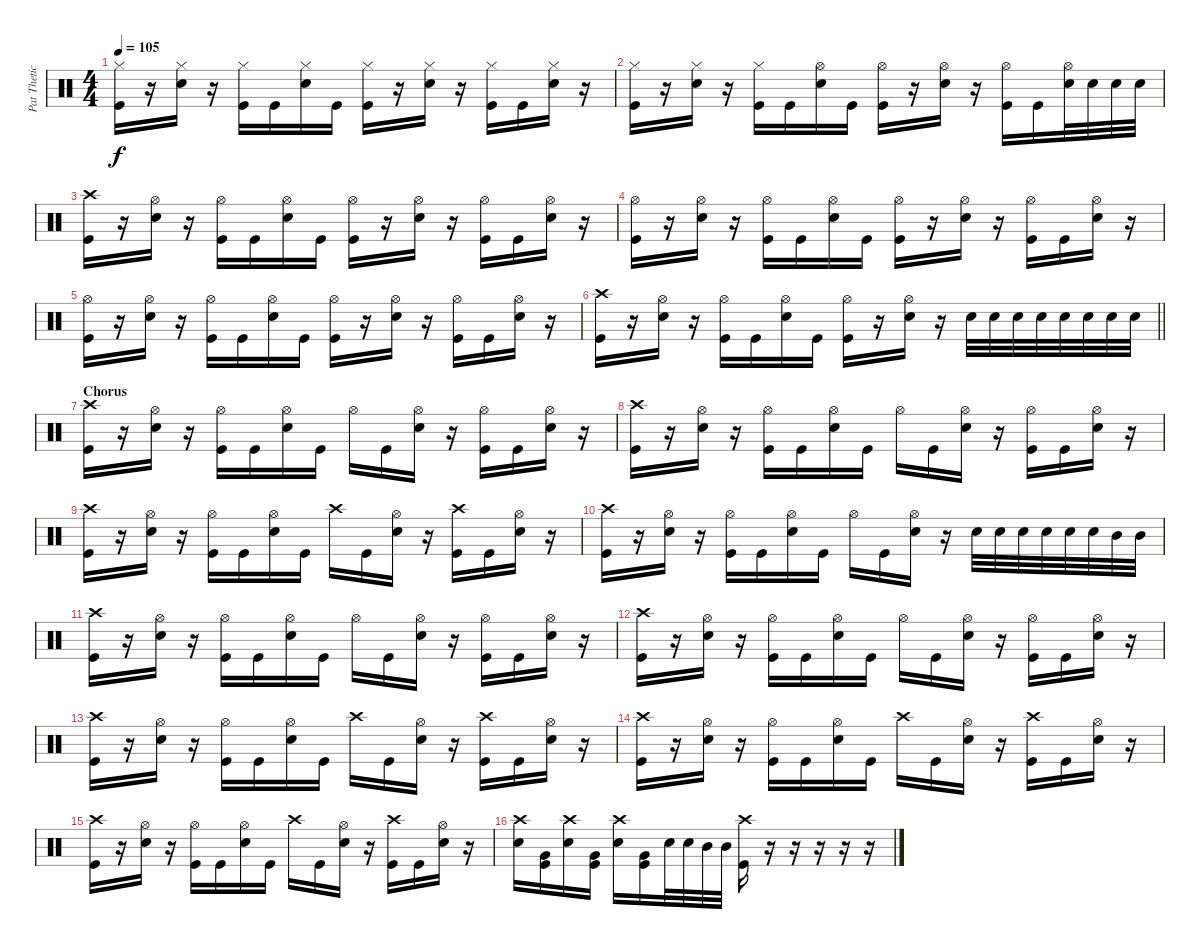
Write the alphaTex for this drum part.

\track ("Pat Thetic" "Pat Thetic") {instrument percussion}
\staff {score}
\articulation defaults
\ts (4 4)
\tempo 105
\clef neutral
\ks c
("Hi-Hat (closed)" "Kick (hit)").16{dy f} r.16 ("Hi-Hat (closed)" "Snare (hit) 2").16 r.16 ("Hi-Hat (closed)" "Kick (hit)").16 "Kick (hit)".16 ("Hi-Hat (closed)" "Snare (hit) 2").16 "Kick (hit)".16 ("Hi-Hat (closed)" "Kick (hit)").16 r.16 ("Hi-Hat (closed)" "Snare (hit) 2").16 r.16 ("Hi-Hat (closed)" "Kick (hit)").16 "Kick (hit)".16 ("Hi-Hat (closed)" "Snare (hit) 2").16 r.16 |
("Hi-Hat (closed)" "Kick (hit)").16 r.16 ("Hi-Hat (closed)" "Snare (hit) 2").16 r.16 ("Hi-Hat (closed)" "Kick (hit)").16 "Kick (hit)".16 ("Hi-Hat (open)" "Snare (hit) 2").16 "Kick (hit)".16 ("Hi-Hat (open)" "Kick (hit)").16 r.16 ("Hi-Hat (open)" "Snare (hit) 2").16 r.16 ("Hi-Hat (open)" "Kick (hit)").16 "Kick (hit)".16 ("Hi-Hat (open)" "Snare (hit) 2").32 "Snare (hit) 2".32 "Snare (hit) 2".32 "Snare (hit) 2".32 |
("Crash high (hit)" "Kick (hit)").16 r.16 ("Hi-Hat (open)" "Snare (hit) 2").16 r.16 ("Hi-Hat (open)" "Kick (hit)").16 "Kick (hit)".16 ("Hi-Hat (open)" "Snare (hit) 2").16 "Kick (hit)".16 ("Hi-Hat (open)" "Kick (hit)").16 r.16 ("Hi-Hat (open)" "Snare (hit) 2").16 r.16 ("Hi-Hat (open)" "Kick (hit)").16 "Kick (hit)".16 ("Hi-Hat (open)" "Snare (hit) 2").16 r.16 |
("Hi-Hat (open)" "Kick (hit)").16 r.16 ("Hi-Hat (open)" "Snare (hit) 2").16 r.16 ("Hi-Hat (open)" "Kick (hit)").16 "Kick (hit)".16 ("Hi-Hat (open)" "Snare (hit) 2").16 "Kick (hit)".16 ("Hi-Hat (open)" "Kick (hit)").16 r.16 ("Hi-Hat (open)" "Snare (hit) 2").16 r.16 ("Hi-Hat (open)" "Kick (hit)").16 "Kick (hit)".16 ("Hi-Hat (open)" "Snare (hit) 2").16 r.16 |
("Hi-Hat (open)" "Kick (hit)").16 r.16 ("Hi-Hat (open)" "Snare (hit) 2").16 r.16 ("Hi-Hat (open)" "Kick (hit)").16 "Kick (hit)".16 ("Hi-Hat (open)" "Snare (hit) 2").16 "Kick (hit)".16 ("Hi-Hat (open)" "Kick (hit)").16 r.16 ("Hi-Hat (open)" "Snare (hit) 2").16 r.16 ("Hi-Hat (open)" "Kick (hit)").16 "Kick (hit)".16 ("Hi-Hat (open)" "Snare (hit) 2").16 r.16 |
\barLineRight lightlight
("Crash high (hit)" "Kick (hit)").16 r.16 ("Hi-Hat (open)" "Snare (hit) 2").16 r.16 ("Hi-Hat (open)" "Kick (hit)").16 "Kick (hit)".16 ("Hi-Hat (open)" "Snare (hit) 2").16 "Kick (hit)".16 ("Hi-Hat (open)" "Kick (hit)").16 r.16 ("Hi-Hat (open)" "Snare (hit) 2").16 r.16 "Snare (hit) 2".32 "Snare (hit) 2".32 "Snare (hit) 2".32 "Snare (hit) 2".32 "Snare (hit) 2".32 "Snare (hit) 2".32 "Snare (hit) 2".32 "Snare (hit) 2".32 |
\section ("" "Chorus")
("Crash high (hit)" "Kick (hit)").16 r.16 ("Hi-Hat (open)" "Snare (hit) 2").16 r.16 ("Hi-Hat (open)" "Kick (hit)").16 "Kick (hit)".16 ("Hi-Hat (open)" "Snare (hit) 2").16 "Kick (hit)".16 "Hi-Hat (open)".16 "Kick (hit)".16 ("Hi-Hat (open)" "Snare (hit) 2").16 r.16 ("Hi-Hat (open)" "Kick (hit)").16 "Kick (hit)".16 ("Hi-Hat (open)" "Snare (hit) 2").16 r.16 |
("Crash high (hit)" "Kick (hit)").16 r.16 ("Hi-Hat (open)" "Snare (hit) 2").16 r.16 ("Hi-Hat (open)" "Kick (hit)").16 "Kick (hit)".16 ("Hi-Hat (open)" "Snare (hit) 2").16 "Kick (hit)".16 "Hi-Hat (open)".16 "Kick (hit)".16 ("Hi-Hat (open)" "Snare (hit) 2").16 r.16 ("Hi-Hat (open)" "Kick (hit)").16 "Kick (hit)".16 ("Hi-Hat (open)" "Snare (hit) 2").16 r.16 |
("Crash high (hit)" "Kick (hit)").16 r.16 ("Hi-Hat (open)" "Snare (hit) 2").16 r.16 ("Hi-Hat (open)" "Kick (hit)").16 "Kick (hit)".16 ("Hi-Hat (open)" "Snare (hit) 2").16 "Kick (hit)".16 "Crash high (hit)".16 "Kick (hit)".16 ("Hi-Hat (open)" "Snare (hit) 2").16 r.16 ("Crash high (hit)" "Kick (hit)").16 "Kick (hit)".16 ("Hi-Hat (open)" "Snare (hit) 2").16 r.16 |
("Crash high (hit)" "Kick (hit)").16 r.16 ("Hi-Hat (open)" "Snare (hit) 2").16 r.16 ("Hi-Hat (open)" "Kick (hit)").16 "Kick (hit)".16 ("Hi-Hat (open)" "Snare (hit) 2").16 "Kick (hit)".16 "Hi-Hat (open)".16 "Kick (hit)".16 ("Hi-Hat (open)" "Snare (hit) 2").16 r.16 "Snare (hit) 2".32 "Snare (hit) 2".32 "Snare (hit) 2".32 "Electric Snare (hit)".32 "Electric Snare (hit)".32 "Electric Snare (hit)".32 "Mid Tom (hit)".32 "Mid Tom (hit)".32 |
("Crash high (hit)" "Kick (hit)").16 r.16 ("Hi-Hat (open)" "Snare (hit) 2").16 r.16 ("Hi-Hat (open)" "Kick (hit)").16 "Kick (hit)".16 ("Hi-Hat (open)" "Snare (hit) 2").16 "Kick (hit)".16 "Hi-Hat (open)".16 "Kick (hit)".16 ("Hi-Hat (open)" "Snare (hit) 2").16 r.16 ("Hi-Hat (open)" "Kick (hit)").16 "Kick (hit)".16 ("Hi-Hat (open)" "Snare (hit) 2").16 r.16 |
("Crash high (hit)" "Kick (hit)").16 r.16 ("Hi-Hat (open)" "Snare (hit) 2").16 r.16 ("Hi-Hat (open)" "Kick (hit)").16 "Kick (hit)".16 ("Hi-Hat (open)" "Snare (hit) 2").16 "Kick (hit)".16 "Hi-Hat (open)".16 "Kick (hit)".16 ("Hi-Hat (open)" "Snare (hit) 2").16 r.16 ("Hi-Hat (open)" "Kick (hit)").16 "Kick (hit)".16 ("Hi-Hat (open)" "Snare (hit) 2").16 r.16 |
("Crash high (hit)" "Kick (hit)").16 r.16 ("Hi-Hat (open)" "Snare (hit) 2").16 r.16 ("Hi-Hat (open)" "Kick (hit)").16 "Kick (hit)".16 ("Hi-Hat (open)" "Snare (hit) 2").16 "Kick (hit)".16 "Crash high (hit)".16 "Kick (hit)".16 ("Hi-Hat (open)" "Snare (hit) 2").16 r.16 ("Crash high (hit)" "Kick (hit)").16 "Kick (hit)".16 ("Hi-Hat (open)" "Snare (hit) 2").16 r.16 |
("Crash high (hit)" "Kick (hit)").16 r.16 ("Hi-Hat (open)" "Snare (hit) 2").16 r.16 ("Hi-Hat (open)" "Kick (hit)").16 "Kick (hit)".16 ("Hi-Hat (open)" "Snare (hit) 2").16 "Kick (hit)".16 "Crash high (hit)".16 "Kick (hit)".16 ("Hi-Hat (open)" "Snare (hit) 2").16 r.16 ("Crash high (hit)" "Kick (hit)").16 "Kick (hit)".16 ("Hi-Hat (open)" "Snare (hit) 2").16 r.16 |
("Crash high (hit)" "Kick (hit)").16 r.16 ("Hi-Hat (open)" "Snare (hit) 2").16 r.16 ("Hi-Hat (open)" "Kick (hit)").16 "Kick (hit)".16 ("Hi-Hat (open)" "Snare (hit) 2").16 "Kick (hit)".16 "Crash high (hit)".16 "Kick (hit)".16 ("Hi-Hat (open)" "Snare (hit) 2").16 r.16 ("Crash high (hit)" "Kick (hit)").16 "Kick (hit)".16 ("Hi-Hat (open)" "Snare (hit) 2").16 r.16 |
("Snare (hit) 2" "Crash high (hit)").16 ("Very Low Tom (hit)" "Kick (hit)").16 ("Snare (hit) 2" "Crash high (hit)").16 ("Kick (hit)" "Very Low Tom (hit)").16 ("Snare (hit) 2" "Crash high (hit)").16 ("Kick (hit)" "Very Low Tom (hit)").16 "Snare (hit) 2".32 "Snare (hit) 2".32 "Mid Tom (hit)".32 "Mid Tom (hit)".32 ("Crash high (hit)" "Kick (hit)").16 r.16 r.16 r.16 r.16 r.16
